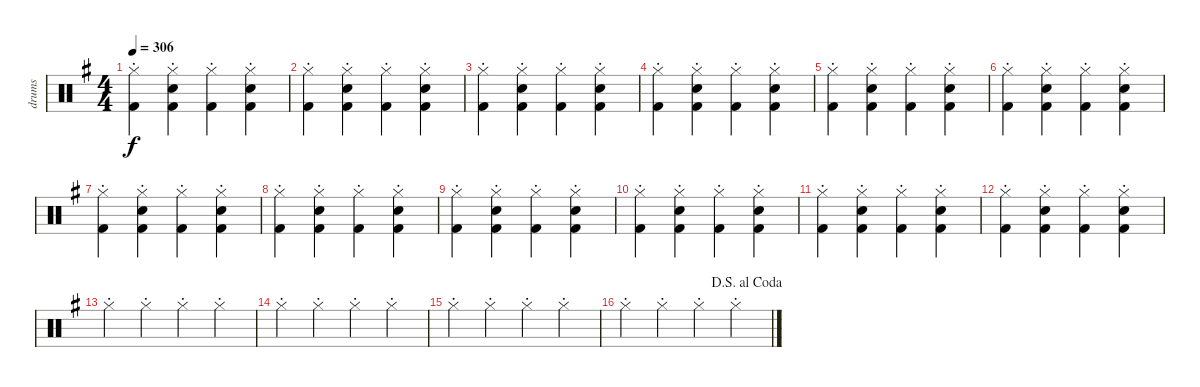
\track ("drums" "drums") {instrument percussion}
\staff {score}
\articulation defaults
\ts (4 4)
\tempo 306
\clef neutral
\ks g
("Hi-Hat (closed)"{st} "Kick (hit) 2").4{dy f} ("Hi-Hat (closed)"{st} "Electric Snare (hit)" "Kick (hit) 2").4 ("Hi-Hat (closed)"{st} "Kick (hit) 2").4 ("Hi-Hat (closed)"{st} "Electric Snare (hit)" "Kick (hit) 2").4 |
("Hi-Hat (closed)"{st} "Kick (hit) 2").4 ("Hi-Hat (closed)"{st} "Electric Snare (hit)" "Kick (hit) 2").4 ("Hi-Hat (closed)"{st} "Kick (hit) 2").4 ("Hi-Hat (closed)"{st} "Electric Snare (hit)" "Kick (hit) 2").4 |
("Hi-Hat (closed)"{st} "Kick (hit) 2").4 ("Hi-Hat (closed)"{st} "Electric Snare (hit)" "Kick (hit) 2").4 ("Hi-Hat (closed)"{st} "Kick (hit) 2").4 ("Hi-Hat (closed)"{st} "Electric Snare (hit)" "Kick (hit) 2").4 |
("Hi-Hat (closed)"{st} "Kick (hit) 2").4 ("Hi-Hat (closed)"{st} "Electric Snare (hit)" "Kick (hit) 2").4 ("Hi-Hat (closed)"{st} "Kick (hit) 2").4 ("Hi-Hat (closed)"{st} "Electric Snare (hit)" "Kick (hit) 2").4 |
("Hi-Hat (closed)"{st} "Kick (hit) 2").4 ("Hi-Hat (closed)"{st} "Electric Snare (hit)" "Kick (hit) 2").4 ("Hi-Hat (closed)"{st} "Kick (hit) 2").4 ("Hi-Hat (closed)"{st} "Electric Snare (hit)" "Kick (hit) 2").4 |
("Hi-Hat (closed)"{st} "Kick (hit) 2").4 ("Hi-Hat (closed)"{st} "Electric Snare (hit)" "Kick (hit) 2").4 ("Hi-Hat (closed)"{st} "Kick (hit) 2").4 ("Hi-Hat (closed)"{st} "Electric Snare (hit)" "Kick (hit) 2").4 |
("Hi-Hat (closed)"{st} "Kick (hit) 2").4 ("Hi-Hat (closed)"{st} "Electric Snare (hit)" "Kick (hit) 2").4 ("Hi-Hat (closed)"{st} "Kick (hit) 2").4 ("Hi-Hat (closed)"{st} "Electric Snare (hit)" "Kick (hit) 2").4 |
("Hi-Hat (closed)"{st} "Kick (hit) 2").4 ("Hi-Hat (closed)"{st} "Electric Snare (hit)" "Kick (hit) 2").4 ("Hi-Hat (closed)"{st} "Kick (hit) 2").4 ("Hi-Hat (closed)"{st} "Electric Snare (hit)" "Kick (hit) 2").4 |
("Hi-Hat (closed)"{st} "Kick (hit) 2").4 ("Hi-Hat (closed)"{st} "Electric Snare (hit)" "Kick (hit) 2").4 ("Hi-Hat (closed)"{st} "Kick (hit) 2").4 ("Hi-Hat (closed)"{st} "Electric Snare (hit)" "Kick (hit) 2").4 |
("Hi-Hat (closed)"{st} "Kick (hit) 2").4 ("Hi-Hat (closed)"{st} "Electric Snare (hit)" "Kick (hit) 2").4 ("Hi-Hat (closed)"{st} "Kick (hit) 2").4 ("Hi-Hat (closed)"{st} "Electric Snare (hit)" "Kick (hit) 2").4 |
("Hi-Hat (closed)"{st} "Kick (hit) 2").4 ("Hi-Hat (closed)"{st} "Electric Snare (hit)" "Kick (hit) 2").4 ("Hi-Hat (closed)"{st} "Kick (hit) 2").4 ("Hi-Hat (closed)"{st} "Electric Snare (hit)" "Kick (hit) 2").4 |
("Hi-Hat (closed)"{st} "Kick (hit) 2").4 ("Hi-Hat (closed)"{st} "Electric Snare (hit)" "Kick (hit) 2").4 ("Hi-Hat (closed)"{st} "Kick (hit) 2").4 ("Hi-Hat (closed)"{st} "Electric Snare (hit)" "Kick (hit) 2").4 |
"Hi-Hat (closed)"{st}.4 "Hi-Hat (closed)"{st}.4 "Hi-Hat (closed)"{st}.4 "Hi-Hat (closed)"{st}.4 |
"Hi-Hat (closed)"{st}.4 "Hi-Hat (closed)"{st}.4 "Hi-Hat (closed)"{st}.4 "Hi-Hat (closed)"{st}.4 |
"Hi-Hat (closed)"{st}.4 "Hi-Hat (closed)"{st}.4 "Hi-Hat (closed)"{st}.4 "Hi-Hat (closed)"{st}.4 |
\jump dalsegnoalcoda "Hi-Hat (closed)"{st}.4 "Hi-Hat (closed)"{st}.4 "Hi-Hat (closed)"{st}.4 "Hi-Hat (closed)"{st}.4
